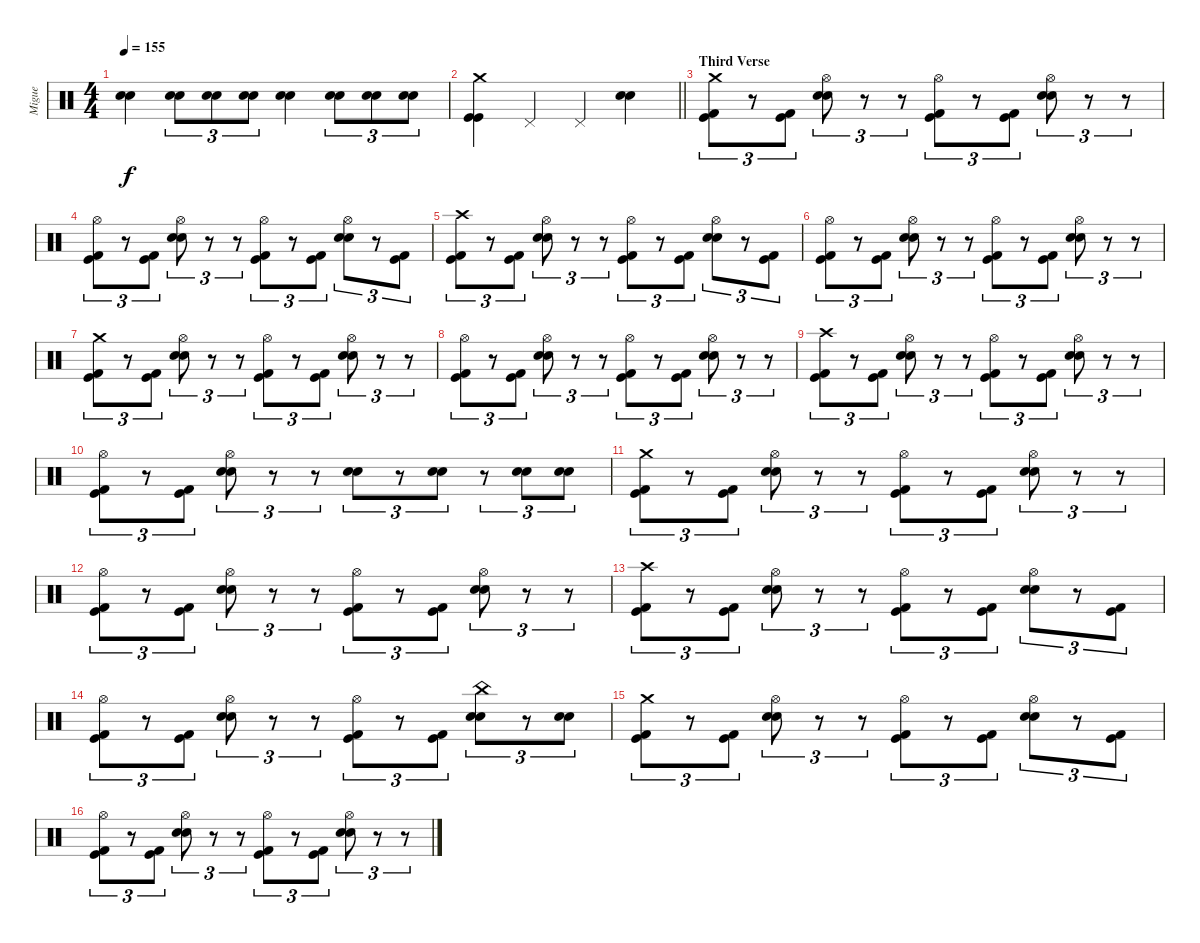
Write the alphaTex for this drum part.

\track ("Migue" "Migue") {instrument percussion}
\staff {score}
\articulation defaults
\ts (4 4)
\tempo 155
\clef neutral
\ks c
("Snare (hit) 2" "Snare (hit) 2").4{dy f} ("Snare (hit) 2" "Snare (hit) 2").8{tu (3 2)} ("Snare (hit) 2" "Snare (hit) 2").8{tu (3 2)} ("Snare (hit) 2" "Snare (hit) 2").8{tu (3 2)} ("Snare (hit) 2" "Snare (hit) 2").4 ("Snare (hit) 2" "Snare (hit) 2").8{tu (3 2)} ("Snare (hit) 2" "Snare (hit) 2").8{tu (3 2)} ("Snare (hit) 2" "Snare (hit) 2").8{tu (3 2)} |
\barLineRight lightlight
("Crash medium (hit)" "Kick (hit)" "Kick (hit)").4 "Pedal Hi-Hat (hit)".4 "Pedal Hi-Hat (hit)".4 ("Snare (hit) 2" "Snare (hit) 2").4 |
\section ("" "Third Verse")
("Crash medium (hit)" "Kick (hit) 2" "Kick (hit)").8{tu (3 2)} r.8{tu (3 2)} ("Kick (hit) 2" "Kick (hit)").8{tu (3 2)} ("Hi-Hat (open)" "Snare (hit) 2" "Snare (hit) 2").8{tu (3 2)} r.8{tu (3 2)} r.8{tu (3 2)} ("Hi-Hat (open)" "Kick (hit) 2" "Kick (hit)").8{tu (3 2)} r.8{tu (3 2)} ("Kick (hit) 2" "Kick (hit)").8{tu (3 2)} ("Hi-Hat (open)" "Snare (hit) 2" "Snare (hit) 2").8{tu (3 2)} r.8{tu (3 2)} r.8{tu (3 2)} |
("Hi-Hat (open)" "Kick (hit) 2" "Kick (hit)").8{tu (3 2)} r.8{tu (3 2)} ("Kick (hit) 2" "Kick (hit)").8{tu (3 2)} ("Hi-Hat (open)" "Snare (hit) 2" "Snare (hit) 2").8{tu (3 2)} r.8{tu (3 2)} r.8{tu (3 2)} ("Hi-Hat (open)" "Kick (hit) 2" "Kick (hit)").8{tu (3 2)} r.8{tu (3 2)} ("Kick (hit) 2" "Kick (hit)").8{tu (3 2)} ("Hi-Hat (open)" "Snare (hit) 2" "Snare (hit) 2").8{tu (3 2)} r.8{tu (3 2)} ("Kick (hit) 2" "Kick (hit)").8{tu (3 2)} |
("Crash high (hit)" "Kick (hit) 2" "Kick (hit)").8{tu (3 2)} r.8{tu (3 2)} ("Kick (hit) 2" "Kick (hit)").8{tu (3 2)} ("Hi-Hat (open)" "Snare (hit) 2" "Snare (hit) 2").8{tu (3 2)} r.8{tu (3 2)} r.8{tu (3 2)} ("Hi-Hat (open)" "Kick (hit) 2" "Kick (hit)").8{tu (3 2)} r.8{tu (3 2)} ("Kick (hit) 2" "Kick (hit)").8{tu (3 2)} ("Hi-Hat (open)" "Snare (hit) 2" "Snare (hit) 2").8{tu (3 2)} r.8{tu (3 2)} ("Kick (hit) 2" "Kick (hit)").8{tu (3 2)} |
("Hi-Hat (open)" "Kick (hit) 2" "Kick (hit)").8{tu (3 2)} r.8{tu (3 2)} ("Kick (hit) 2" "Kick (hit)").8{tu (3 2)} ("Hi-Hat (open)" "Snare (hit) 2" "Snare (hit) 2").8{tu (3 2)} r.8{tu (3 2)} r.8{tu (3 2)} ("Hi-Hat (open)" "Kick (hit) 2" "Kick (hit)").8{tu (3 2)} r.8{tu (3 2)} ("Kick (hit) 2" "Kick (hit)").8{tu (3 2)} ("Hi-Hat (open)" "Snare (hit) 2" "Snare (hit) 2").8{tu (3 2)} r.8{tu (3 2)} r.8{tu (3 2)} |
("Crash medium (hit)" "Kick (hit) 2" "Kick (hit)").8{tu (3 2)} r.8{tu (3 2)} ("Kick (hit) 2" "Kick (hit)").8{tu (3 2)} ("Hi-Hat (open)" "Snare (hit) 2" "Snare (hit) 2").8{tu (3 2)} r.8{tu (3 2)} r.8{tu (3 2)} ("Hi-Hat (open)" "Kick (hit) 2" "Kick (hit)").8{tu (3 2)} r.8{tu (3 2)} ("Kick (hit) 2" "Kick (hit)").8{tu (3 2)} ("Hi-Hat (open)" "Snare (hit) 2" "Snare (hit) 2").8{tu (3 2)} r.8{tu (3 2)} r.8{tu (3 2)} |
("Hi-Hat (open)" "Kick (hit) 2" "Kick (hit)").8{tu (3 2)} r.8{tu (3 2)} ("Kick (hit) 2" "Kick (hit)").8{tu (3 2)} ("Hi-Hat (open)" "Snare (hit) 2" "Snare (hit) 2").8{tu (3 2)} r.8{tu (3 2)} r.8{tu (3 2)} ("Hi-Hat (open)" "Kick (hit) 2" "Kick (hit)").8{tu (3 2)} r.8{tu (3 2)} ("Kick (hit) 2" "Kick (hit)").8{tu (3 2)} ("Hi-Hat (open)" "Snare (hit) 2" "Snare (hit) 2").8{tu (3 2)} r.8{tu (3 2)} r.8{tu (3 2)} |
("Crash high (hit)" "Kick (hit) 2" "Kick (hit)").8{tu (3 2)} r.8{tu (3 2)} ("Kick (hit) 2" "Kick (hit)").8{tu (3 2)} ("Hi-Hat (open)" "Snare (hit) 2" "Snare (hit) 2").8{tu (3 2)} r.8{tu (3 2)} r.8{tu (3 2)} ("Hi-Hat (open)" "Kick (hit) 2" "Kick (hit)").8{tu (3 2)} r.8{tu (3 2)} ("Kick (hit) 2" "Kick (hit)").8{tu (3 2)} ("Hi-Hat (open)" "Snare (hit) 2" "Snare (hit) 2").8{tu (3 2)} r.8{tu (3 2)} r.8{tu (3 2)} |
("Hi-Hat (open)" "Kick (hit) 2" "Kick (hit)").8{tu (3 2)} r.8{tu (3 2)} ("Kick (hit) 2" "Kick (hit)").8{tu (3 2)} ("Hi-Hat (open)" "Snare (hit) 2" "Snare (hit) 2").8{tu (3 2)} r.8{tu (3 2)} r.8{tu (3 2)} ("Snare (hit) 2" "Snare (hit) 2").8{tu (3 2)} r.8{tu (3 2)} ("Snare (hit) 2" "Snare (hit) 2").8{tu (3 2)} r.8{tu (3 2)} ("Snare (hit) 2" "Snare (hit) 2").8{tu (3 2)} ("Snare (hit) 2" "Snare (hit) 2").8{tu (3 2)} |
("Crash medium (hit)" "Kick (hit) 2" "Kick (hit)").8{tu (3 2)} r.8{tu (3 2)} ("Kick (hit) 2" "Kick (hit)").8{tu (3 2)} ("Hi-Hat (open)" "Snare (hit) 2" "Snare (hit) 2").8{tu (3 2)} r.8{tu (3 2)} r.8{tu (3 2)} ("Hi-Hat (open)" "Kick (hit) 2" "Kick (hit)").8{tu (3 2)} r.8{tu (3 2)} ("Kick (hit) 2" "Kick (hit)").8{tu (3 2)} ("Hi-Hat (open)" "Snare (hit) 2" "Snare (hit) 2").8{tu (3 2)} r.8{tu (3 2)} r.8{tu (3 2)} |
("Hi-Hat (open)" "Kick (hit) 2" "Kick (hit)").8{tu (3 2)} r.8{tu (3 2)} ("Kick (hit) 2" "Kick (hit)").8{tu (3 2)} ("Hi-Hat (open)" "Snare (hit) 2" "Snare (hit) 2").8{tu (3 2)} r.8{tu (3 2)} r.8{tu (3 2)} ("Hi-Hat (open)" "Kick (hit) 2" "Kick (hit)").8{tu (3 2)} r.8{tu (3 2)} ("Kick (hit) 2" "Kick (hit)").8{tu (3 2)} ("Hi-Hat (open)" "Snare (hit) 2" "Snare (hit) 2").8{tu (3 2)} r.8{tu (3 2)} r.8{tu (3 2)} |
("Crash high (hit)" "Kick (hit) 2" "Kick (hit)").8{tu (3 2)} r.8{tu (3 2)} ("Kick (hit) 2" "Kick (hit)").8{tu (3 2)} ("Hi-Hat (open)" "Snare (hit) 2" "Snare (hit) 2").8{tu (3 2)} r.8{tu (3 2)} r.8{tu (3 2)} ("Hi-Hat (open)" "Kick (hit) 2" "Kick (hit)").8{tu (3 2)} r.8{tu (3 2)} ("Kick (hit) 2" "Kick (hit)").8{tu (3 2)} ("Hi-Hat (open)" "Snare (hit) 2" "Snare (hit) 2").8{tu (3 2)} r.8{tu (3 2)} ("Kick (hit) 2" "Kick (hit)").8{tu (3 2)} |
("Hi-Hat (open)" "Kick (hit) 2" "Kick (hit)").8{tu (3 2)} r.8{tu (3 2)} ("Kick (hit) 2" "Kick (hit)").8{tu (3 2)} ("Hi-Hat (open)" "Snare (hit) 2" "Snare (hit) 2").8{tu (3 2)} r.8{tu (3 2)} r.8{tu (3 2)} ("Hi-Hat (open)" "Kick (hit) 2" "Kick (hit)").8{tu (3 2)} r.8{tu (3 2)} ("Kick (hit) 2" "Kick (hit)").8{tu (3 2)} ("China (hit)" "Snare (hit) 2" "Snare (hit) 2").8{tu (3 2)} r.8{tu (3 2)} ("Snare (hit) 2" "Snare (hit) 2").8{tu (3 2)} |
("Crash medium (hit)" "Kick (hit) 2" "Kick (hit)").8{tu (3 2)} r.8{tu (3 2)} ("Kick (hit) 2" "Kick (hit)").8{tu (3 2)} ("Hi-Hat (open)" "Snare (hit) 2" "Snare (hit) 2").8{tu (3 2)} r.8{tu (3 2)} r.8{tu (3 2)} ("Hi-Hat (open)" "Kick (hit) 2" "Kick (hit)").8{tu (3 2)} r.8{tu (3 2)} ("Kick (hit) 2" "Kick (hit)").8{tu (3 2)} ("Hi-Hat (open)" "Snare (hit) 2" "Snare (hit) 2").8{tu (3 2)} r.8{tu (3 2)} ("Kick (hit) 2" "Kick (hit)").8{tu (3 2)} |
("Hi-Hat (open)" "Kick (hit) 2" "Kick (hit)").8{tu (3 2)} r.8{tu (3 2)} ("Kick (hit) 2" "Kick (hit)").8{tu (3 2)} ("Hi-Hat (open)" "Snare (hit) 2" "Snare (hit) 2").8{tu (3 2)} r.8{tu (3 2)} r.8{tu (3 2)} ("Hi-Hat (open)" "Kick (hit) 2" "Kick (hit)").8{tu (3 2)} r.8{tu (3 2)} ("Kick (hit) 2" "Kick (hit)").8{tu (3 2)} ("Hi-Hat (open)" "Snare (hit) 2" "Snare (hit) 2").8{tu (3 2)} r.8{tu (3 2)} r.8{tu (3 2)}
